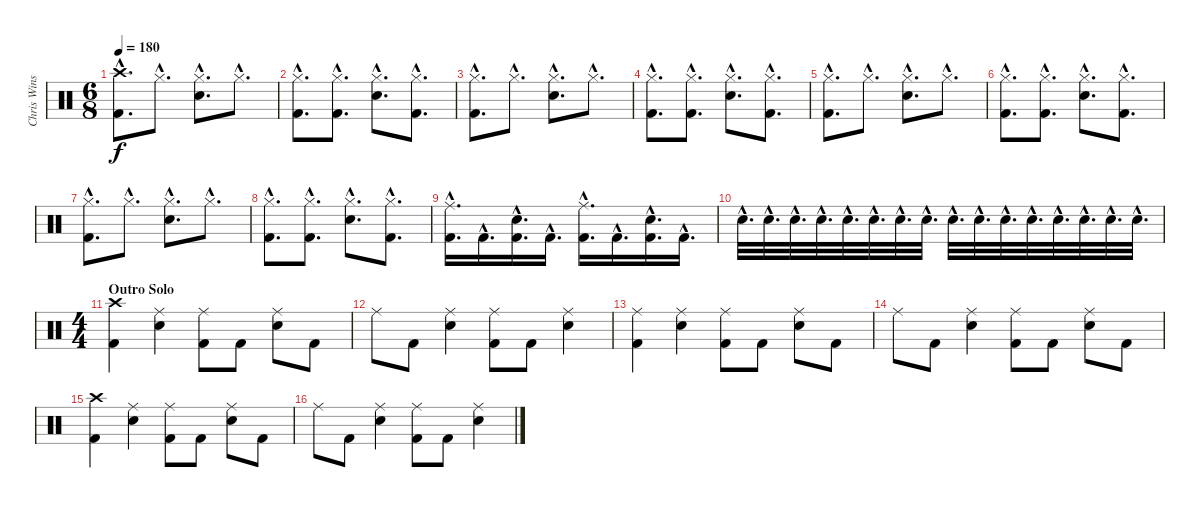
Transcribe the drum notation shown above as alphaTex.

\track ("Chris Winship (Drums)" "Chris Wins") {instrument percussion}
\staff {score}
\articulation defaults
\ts (6 8)
\tempo 180
\clef neutral
\ks c
("Crash high (hit)"{hac} "Kick (hit) 2"{hac}).8{d dy f} "Hi-Hat (closed)"{hac}.8{d} ("Hi-Hat (closed)"{hac} "Electric Snare (hit)"{hac}).8{d} "Hi-Hat (closed)"{hac}.8{d} |
("Hi-Hat (closed)"{hac} "Kick (hit) 2"{hac}).8{d} ("Hi-Hat (closed)"{hac} "Kick (hit) 2"{hac}).8{d} ("Hi-Hat (closed)"{hac} "Electric Snare (hit)"{hac}).8{d} ("Hi-Hat (closed)"{hac} "Kick (hit) 2"{hac}).8{d} |
("Hi-Hat (closed)"{hac} "Kick (hit) 2"{hac}).8{d} "Hi-Hat (closed)"{hac}.8{d} ("Hi-Hat (closed)"{hac} "Electric Snare (hit)"{hac}).8{d} "Hi-Hat (closed)"{hac}.8{d} |
("Hi-Hat (closed)"{hac} "Kick (hit) 2"{hac}).8{d} ("Hi-Hat (closed)"{hac} "Kick (hit) 2"{hac}).8{d} ("Hi-Hat (closed)"{hac} "Electric Snare (hit)"{hac}).8{d} ("Hi-Hat (closed)"{hac} "Kick (hit) 2"{hac}).8{d} |
("Hi-Hat (closed)"{hac} "Kick (hit) 2"{hac}).8{d} "Hi-Hat (closed)"{hac}.8{d} ("Hi-Hat (closed)"{hac} "Electric Snare (hit)"{hac}).8{d} "Hi-Hat (closed)"{hac}.8{d} |
("Hi-Hat (closed)"{hac} "Kick (hit) 2"{hac}).8{d} ("Hi-Hat (closed)"{hac} "Kick (hit) 2"{hac}).8{d} ("Hi-Hat (closed)"{hac} "Electric Snare (hit)"{hac}).8{d} ("Hi-Hat (closed)"{hac} "Kick (hit) 2"{hac}).8{d} |
("Hi-Hat (closed)"{hac} "Kick (hit) 2"{hac}).8{d} "Hi-Hat (closed)"{hac}.8{d} ("Hi-Hat (closed)"{hac} "Electric Snare (hit)"{hac}).8{d} "Hi-Hat (closed)"{hac}.8{d} |
("Hi-Hat (closed)"{hac} "Kick (hit) 2"{hac}).8{d} ("Hi-Hat (closed)"{hac} "Kick (hit) 2"{hac}).8{d} ("Hi-Hat (closed)"{hac} "Electric Snare (hit)"{hac}).8{d} ("Hi-Hat (closed)"{hac} "Kick (hit) 2"{hac}).8{d} |
("Ride (middle)"{hac} "Kick (hit) 2"{hac}).16{d} "Kick (hit) 2"{hac}.16{d} ("Electric Snare (hit)"{hac} "Kick (hit) 2"{hac}).16{d} "Kick (hit) 2"{hac}.16{d} ("Ride (middle)"{hac} "Kick (hit) 2"{hac}).16{d} "Kick (hit) 2"{hac}.16{d} ("Electric Snare (hit)"{hac} "Kick (hit) 2"{hac}).16{d} "Kick (hit) 2"{hac}.16{d} |
"Electric Snare (hit)"{hac}.32{d} "Electric Snare (hit)"{hac}.32{d} "Electric Snare (hit)"{hac}.32{d} "Electric Snare (hit)"{hac}.32{d} "Electric Snare (hit)"{hac}.32{d} "Electric Snare (hit)"{hac}.32{d} "Electric Snare (hit)"{hac}.32{d} "Electric Snare (hit)"{hac}.32{d} "Electric Snare (hit)"{hac}.32{d} "Electric Snare (hit)"{hac}.32{d} "Electric Snare (hit)"{hac}.32{d} "Electric Snare (hit)"{hac}.32{d} "Electric Snare (hit)"{hac}.32{d} "Electric Snare (hit)"{hac}.32{d} "Electric Snare (hit)"{hac}.32{d} "Electric Snare (hit)"{hac}.32{d} |
\ts (4 4)
\section ("" "Outro Solo")
("Crash high (hit)" "Kick (hit) 2").4 ("Ride (middle)" "Electric Snare (hit)").4 ("Ride (middle)" "Kick (hit) 2").8 "Kick (hit) 2".8 ("Ride (middle)" "Electric Snare (hit)").8 "Kick (hit) 2".8 |
"Ride (middle)".8 "Kick (hit) 2".8 ("Ride (middle)" "Electric Snare (hit)").4 ("Ride (middle)" "Kick (hit) 2").8 "Kick (hit) 2".8 ("Ride (middle)" "Electric Snare (hit)").4 |
("Ride (middle)" "Kick (hit) 2").4 ("Ride (middle)" "Electric Snare (hit)").4 ("Ride (middle)" "Kick (hit) 2").8 "Kick (hit) 2".8 ("Ride (middle)" "Electric Snare (hit)").8 "Kick (hit) 2".8 |
"Ride (middle)".8 "Kick (hit) 2".8 ("Ride (middle)" "Electric Snare (hit)").4 ("Ride (middle)" "Kick (hit) 2").8 "Kick (hit) 2".8 ("Ride (middle)" "Electric Snare (hit)").8 "Kick (hit) 2".8 |
("Crash high (hit)" "Kick (hit) 2").4 ("Ride (middle)" "Electric Snare (hit)").4 ("Ride (middle)" "Kick (hit) 2").8 "Kick (hit) 2".8 ("Ride (middle)" "Electric Snare (hit)").8 "Kick (hit) 2".8 |
"Ride (middle)".8 "Kick (hit) 2".8 ("Ride (middle)" "Electric Snare (hit)").4 ("Ride (middle)" "Kick (hit) 2").8 "Kick (hit) 2".8 ("Ride (middle)" "Electric Snare (hit)").4
